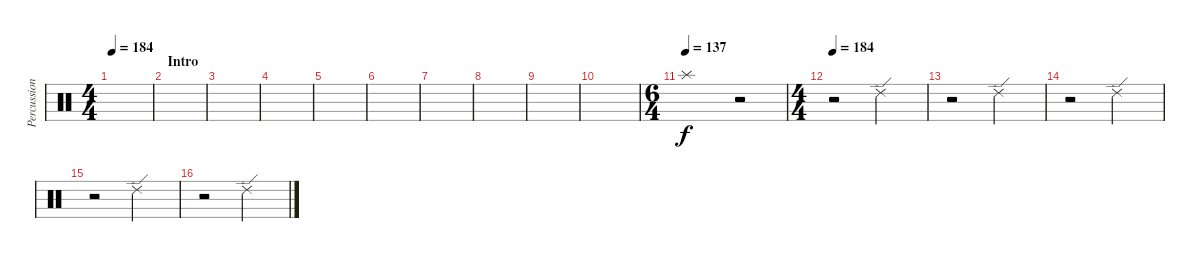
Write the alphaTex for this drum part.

\track ("Percussion" "Percussion") {instrument percussion}
\staff {score}
\articulation defaults
\ts (4 4)
\tempo 184
\tempo 130
\tempo 184
\clef neutral
\ks c
|
\section ("" "Intro")
|
|
|
|
|
|
|
|
|
\ts (6 4)
\tempo (137)
"Splash (hit)".1 r.2 |
\ts (4 4)
\tempo 184
r.2 "Ride (edge) 2".2 |
r.2 "Ride (edge) 2".2 |
r.2 "Ride (edge) 2".2 |
r.2 "Ride (edge) 2".2 |
r.2 "Ride (edge) 2".2
